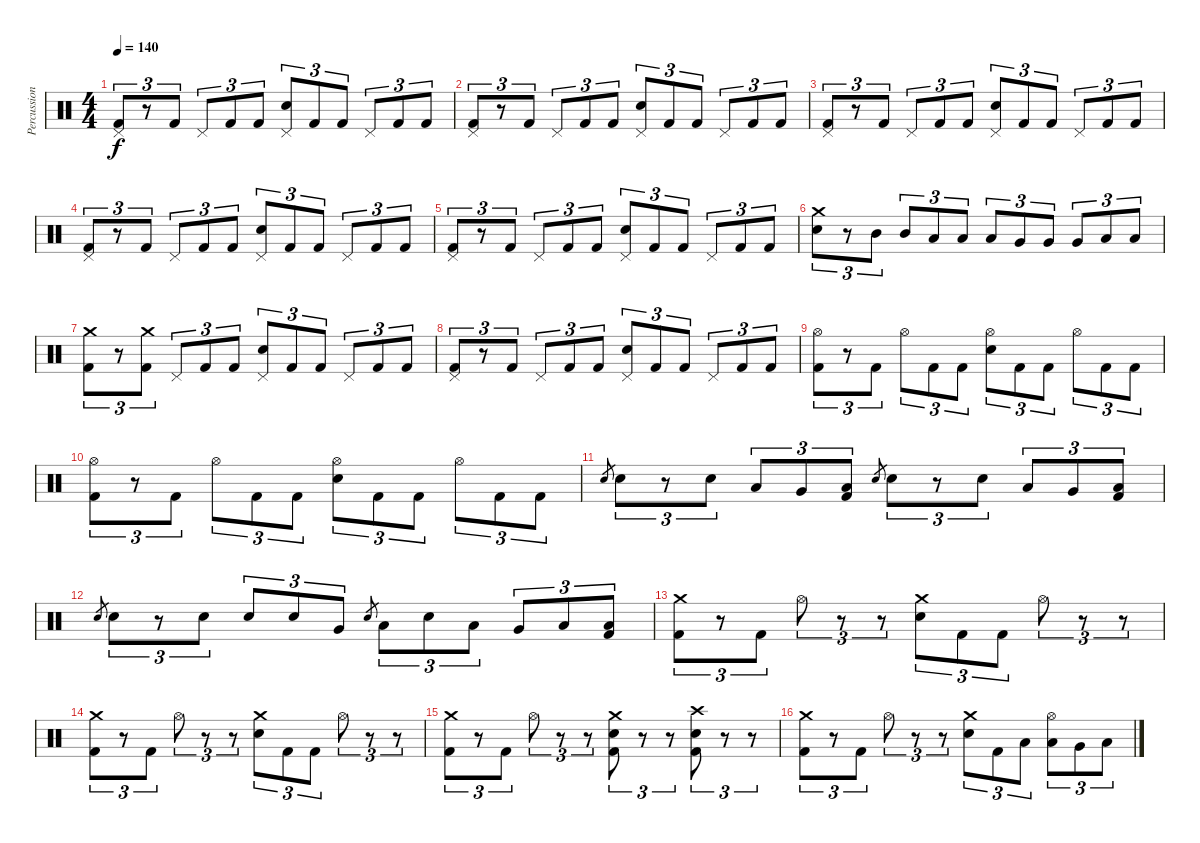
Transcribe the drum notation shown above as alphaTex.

\track ("Percussion" "Percussion") {instrument percussion}
\staff {score}
\articulation defaults
\ts (4 4)
\tempo 140
\clef neutral
\ks c
("Pedal Hi-Hat (hit)" "Kick (hit) 2").8{tu (3 2) dy f} r.8{tu (3 2)} "Kick (hit) 2".8{tu (3 2)} "Pedal Hi-Hat (hit)".8{tu (3 2)} "Kick (hit) 2".8{tu (3 2)} "Kick (hit) 2".8{tu (3 2)} ("Pedal Hi-Hat (hit)" "Electric Snare (hit)").8{tu (3 2)} "Kick (hit) 2".8{tu (3 2)} "Kick (hit) 2".8{tu (3 2)} "Pedal Hi-Hat (hit)".8{tu (3 2)} "Kick (hit) 2".8{tu (3 2)} "Kick (hit) 2".8{tu (3 2)} |
("Pedal Hi-Hat (hit)" "Kick (hit) 2").8{tu (3 2)} r.8{tu (3 2)} "Kick (hit) 2".8{tu (3 2)} "Pedal Hi-Hat (hit)".8{tu (3 2)} "Kick (hit) 2".8{tu (3 2)} "Kick (hit) 2".8{tu (3 2)} ("Pedal Hi-Hat (hit)" "Electric Snare (hit)").8{tu (3 2)} "Kick (hit) 2".8{tu (3 2)} "Kick (hit) 2".8{tu (3 2)} "Pedal Hi-Hat (hit)".8{tu (3 2)} "Kick (hit) 2".8{tu (3 2)} "Kick (hit) 2".8{tu (3 2)} |
("Pedal Hi-Hat (hit)" "Kick (hit) 2").8{tu (3 2)} r.8{tu (3 2)} "Kick (hit) 2".8{tu (3 2)} "Pedal Hi-Hat (hit)".8{tu (3 2)} "Kick (hit) 2".8{tu (3 2)} "Kick (hit) 2".8{tu (3 2)} ("Pedal Hi-Hat (hit)" "Electric Snare (hit)").8{tu (3 2)} "Kick (hit) 2".8{tu (3 2)} "Kick (hit) 2".8{tu (3 2)} "Pedal Hi-Hat (hit)".8{tu (3 2)} "Kick (hit) 2".8{tu (3 2)} "Kick (hit) 2".8{tu (3 2)} |
("Pedal Hi-Hat (hit)" "Kick (hit) 2").8{tu (3 2)} r.8{tu (3 2)} "Kick (hit) 2".8{tu (3 2)} "Pedal Hi-Hat (hit)".8{tu (3 2)} "Kick (hit) 2".8{tu (3 2)} "Kick (hit) 2".8{tu (3 2)} ("Pedal Hi-Hat (hit)" "Electric Snare (hit)").8{tu (3 2)} "Kick (hit) 2".8{tu (3 2)} "Kick (hit) 2".8{tu (3 2)} "Pedal Hi-Hat (hit)".8{tu (3 2)} "Kick (hit) 2".8{tu (3 2)} "Kick (hit) 2".8{tu (3 2)} |
("Pedal Hi-Hat (hit)" "Kick (hit) 2").8{tu (3 2)} r.8{tu (3 2)} "Kick (hit) 2".8{tu (3 2)} "Pedal Hi-Hat (hit)".8{tu (3 2)} "Kick (hit) 2".8{tu (3 2)} "Kick (hit) 2".8{tu (3 2)} ("Pedal Hi-Hat (hit)" "Electric Snare (hit)").8{tu (3 2)} "Kick (hit) 2".8{tu (3 2)} "Kick (hit) 2".8{tu (3 2)} "Pedal Hi-Hat (hit)".8{tu (3 2)} "Kick (hit) 2".8{tu (3 2)} "Kick (hit) 2".8{tu (3 2)} |
("Crash medium (hit)" "Electric Snare (hit)").8{tu (3 2)} r.8{tu (3 2)} "Mid Tom (hit)".8{tu (3 2)} "Mid Tom (hit)".8{tu (3 2)} "Low Tom (hit)".8{tu (3 2)} "Low Tom (hit)".8{tu (3 2)} "Low Tom (hit)".8{tu (3 2)} "Very Low Tom (hit)".8{tu (3 2)} "Very Low Tom (hit)".8{tu (3 2)} "Very Low Tom (hit)".8{tu (3 2)} "Low Floor Tom (hit)".8{tu (3 2)} "Low Floor Tom (hit)".8{tu (3 2)} |
("Crash medium (hit)" "Kick (hit) 2").8{tu (3 2)} r.8{tu (3 2)} ("Crash medium (hit)" "Kick (hit) 2").8{tu (3 2)} "Pedal Hi-Hat (hit)".8{tu (3 2)} "Kick (hit) 2".8{tu (3 2)} "Kick (hit) 2".8{tu (3 2)} ("Pedal Hi-Hat (hit)" "Electric Snare (hit)").8{tu (3 2)} "Kick (hit) 2".8{tu (3 2)} "Kick (hit) 2".8{tu (3 2)} "Pedal Hi-Hat (hit)".8{tu (3 2)} "Kick (hit) 2".8{tu (3 2)} "Kick (hit) 2".8{tu (3 2)} |
("Pedal Hi-Hat (hit)" "Kick (hit) 2").8{tu (3 2)} r.8{tu (3 2)} "Kick (hit) 2".8{tu (3 2)} "Pedal Hi-Hat (hit)".8{tu (3 2)} "Kick (hit) 2".8{tu (3 2)} "Kick (hit) 2".8{tu (3 2)} ("Pedal Hi-Hat (hit)" "Electric Snare (hit)").8{tu (3 2)} "Kick (hit) 2".8{tu (3 2)} "Kick (hit) 2".8{tu (3 2)} "Pedal Hi-Hat (hit)".8{tu (3 2)} "Kick (hit) 2".8{tu (3 2)} "Kick (hit) 2".8{tu (3 2)} |
("Hi-Hat (open)" "Kick (hit) 2").8{tu (3 2)} r.8{tu (3 2)} "Kick (hit) 2".8{tu (3 2)} "Hi-Hat (open)".8{tu (3 2)} "Kick (hit) 2".8{tu (3 2)} "Kick (hit) 2".8{tu (3 2)} ("Hi-Hat (open)" "Electric Snare (hit)").8{tu (3 2)} "Kick (hit) 2".8{tu (3 2)} "Kick (hit) 2".8{tu (3 2)} "Hi-Hat (open)".8{tu (3 2)} "Kick (hit) 2".8{tu (3 2)} "Kick (hit) 2".8{tu (3 2)} |
("Hi-Hat (open)" "Kick (hit) 2").8{tu (3 2)} r.8{tu (3 2)} "Kick (hit) 2".8{tu (3 2)} "Hi-Hat (open)".8{tu (3 2)} "Kick (hit) 2".8{tu (3 2)} "Kick (hit) 2".8{tu (3 2)} ("Hi-Hat (open)" "Electric Snare (hit)").8{tu (3 2)} "Kick (hit) 2".8{tu (3 2)} "Kick (hit) 2".8{tu (3 2)} "Hi-Hat (open)".8{tu (3 2)} "Kick (hit) 2".8{tu (3 2)} "Kick (hit) 2".8{tu (3 2)} |
"Electric Snare (hit)".8{gr} "Electric Snare (hit)".8{tu (3 2)} r.8{tu (3 2)} "Electric Snare (hit)".8{tu (3 2)} "Low Tom (hit)".8{tu (3 2)} "Very Low Tom (hit)".8{tu (3 2)} ("Low Floor Tom (hit)" "Kick (hit) 2").8{tu (3 2)} "Electric Snare (hit)".8{gr} "Electric Snare (hit)".8{tu (3 2)} r.8{tu (3 2)} "Electric Snare (hit)".8{tu (3 2)} "Low Tom (hit)".8{tu (3 2)} "Very Low Tom (hit)".8{tu (3 2)} ("Low Floor Tom (hit)" "Kick (hit) 2").8{tu (3 2)} |
"Electric Snare (hit)".8{gr} "Electric Snare (hit)".8{tu (3 2)} r.8{tu (3 2)} "Electric Snare (hit)".8{tu (3 2)} "Electric Snare (hit)".8{tu (3 2)} "Electric Snare (hit)".8{tu (3 2)} "Very Low Tom (hit)".8{tu (3 2)} "Electric Snare (hit)".8{gr} "Low Floor Tom (hit)".8{tu (3 2)} "Electric Snare (hit)".8{tu (3 2)} "Low Tom (hit)".8{tu (3 2)} "Very Low Tom (hit)".8{tu (3 2)} "Low Floor Tom (hit)".8{tu (3 2)} ("Low Floor Tom (hit)" "Kick (hit) 2").8{tu (3 2)} |
("Crash medium (hit)" "Kick (hit) 2").8{tu (3 2)} r.8{tu (3 2)} "Kick (hit) 2".8{tu (3 2)} "Hi-Hat (open)".8{tu (3 2)} r.8{tu (3 2)} r.8{tu (3 2)} ("Crash medium (hit)" "Electric Snare (hit)").8{tu (3 2)} "Kick (hit) 2".8{tu (3 2)} "Kick (hit) 2".8{tu (3 2)} "Hi-Hat (open)".8{tu (3 2)} r.8{tu (3 2)} r.8{tu (3 2)} |
("Crash medium (hit)" "Kick (hit) 2").8{tu (3 2)} r.8{tu (3 2)} "Kick (hit) 2".8{tu (3 2)} "Hi-Hat (open)".8{tu (3 2)} r.8{tu (3 2)} r.8{tu (3 2)} ("Crash medium (hit)" "Electric Snare (hit)").8{tu (3 2)} "Kick (hit) 2".8{tu (3 2)} "Kick (hit) 2".8{tu (3 2)} "Hi-Hat (open)".8{tu (3 2)} r.8{tu (3 2)} r.8{tu (3 2)} |
("Crash medium (hit)" "Kick (hit) 2").8{tu (3 2)} r.8{tu (3 2)} "Kick (hit) 2".8{tu (3 2)} "Hi-Hat (open)".8{tu (3 2)} r.8{tu (3 2)} r.8{tu (3 2)} ("Crash medium (hit)" "Electric Snare (hit)" "Kick (hit) 2").8{tu (3 2)} r.8{tu (3 2)} r.8{tu (3 2)} ("Crash high (hit)" "Electric Snare (hit)" "Kick (hit) 2").8{tu (3 2)} r.8{tu (3 2)} r.8{tu (3 2)} |
("Crash medium (hit)" "Kick (hit) 2").8{tu (3 2)} r.8{tu (3 2)} "Kick (hit) 2".8{tu (3 2)} "Hi-Hat (open)".8{tu (3 2)} r.8{tu (3 2)} r.8{tu (3 2)} ("Crash medium (hit)" "Electric Snare (hit)").8{tu (3 2)} "Kick (hit) 2".8{tu (3 2)} "Low Tom (hit)".8{tu (3 2)} ("Hi-Hat (open)" "Low Tom (hit)").8{tu (3 2)} "Very Low Tom (hit)".8{tu (3 2)} "Low Floor Tom (hit)".8{tu (3 2)}
